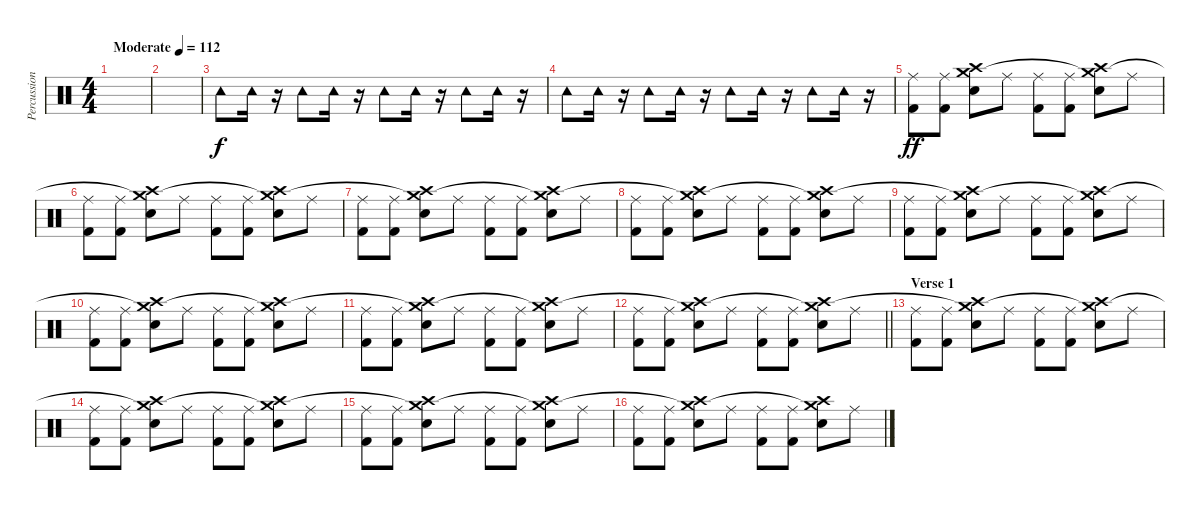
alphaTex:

\track ("Percussion" "Percussion") {instrument percussion}
\staff {score}
\articulation defaults
\ts (4 4)
\tempo (112 "Moderate")
\clef neutral
\ks c
|
|
"Tambourine (hit)".8 "Tambourine (hit)".16 r.16 "Tambourine (hit)".8 "Tambourine (hit)".16 r.16 "Tambourine (hit)".8 "Tambourine (hit)".16 r.16 "Tambourine (hit)".8 "Tambourine (hit)".16 r.16 |
"Tambourine (hit)".8 "Tambourine (hit)".16 r.16 "Tambourine (hit)".8 "Tambourine (hit)".16 r.16 "Tambourine (hit)".8 "Tambourine (hit)".16 r.16 "Tambourine (hit)".8 "Tambourine (hit)".16 r.16 |
("Kick (hit) 2" "Ride (middle)").8{dy ff} ("Kick (hit) 2" "Ride (middle)").8 ("Crash high (hit)" "Electric Snare (hit)" "Crash medium (hit)").8 "Ride (middle)".8 ("Kick (hit) 2" "Ride (middle)").8 ("Kick (hit) 2" "Ride (middle)").8 ("Crash high (hit)" "Electric Snare (hit)" "Crash medium (hit)"{t}).8 "Ride (middle)".8 |
("Kick (hit) 2" "Ride (middle)").8 ("Kick (hit) 2" "Ride (middle)").8 ("Crash high (hit)" "Electric Snare (hit)" "Crash medium (hit)"{t}).8 "Ride (middle)".8 ("Kick (hit) 2" "Ride (middle)").8 ("Kick (hit) 2" "Ride (middle)").8 ("Crash high (hit)" "Electric Snare (hit)" "Crash medium (hit)"{t}).8 "Ride (middle)".8 |
("Kick (hit) 2" "Ride (middle)").8 ("Kick (hit) 2" "Ride (middle)").8 ("Crash high (hit)" "Electric Snare (hit)" "Crash medium (hit)"{t}).8 "Ride (middle)".8 ("Kick (hit) 2" "Ride (middle)").8 ("Kick (hit) 2" "Ride (middle)").8 ("Crash high (hit)" "Electric Snare (hit)" "Crash medium (hit)"{t}).8 "Ride (middle)".8 |
("Kick (hit) 2" "Ride (middle)").8 ("Kick (hit) 2" "Ride (middle)").8 ("Crash high (hit)" "Electric Snare (hit)" "Crash medium (hit)"{t}).8 "Ride (middle)".8 ("Kick (hit) 2" "Ride (middle)").8 ("Kick (hit) 2" "Ride (middle)").8 ("Crash high (hit)" "Electric Snare (hit)" "Crash medium (hit)"{t}).8 "Ride (middle)".8 |
("Kick (hit) 2" "Ride (middle)").8 ("Kick (hit) 2" "Ride (middle)").8 ("Crash high (hit)" "Electric Snare (hit)" "Crash medium (hit)"{t}).8 "Ride (middle)".8 ("Kick (hit) 2" "Ride (middle)").8 ("Kick (hit) 2" "Ride (middle)").8 ("Crash high (hit)" "Electric Snare (hit)" "Crash medium (hit)"{t}).8 "Ride (middle)".8 |
("Kick (hit) 2" "Ride (middle)").8 ("Kick (hit) 2" "Ride (middle)").8 ("Crash high (hit)" "Electric Snare (hit)" "Crash medium (hit)"{t}).8 "Ride (middle)".8 ("Kick (hit) 2" "Ride (middle)").8 ("Kick (hit) 2" "Ride (middle)").8 ("Crash high (hit)" "Electric Snare (hit)" "Crash medium (hit)"{t}).8 "Ride (middle)".8 |
("Kick (hit) 2" "Ride (middle)").8 ("Kick (hit) 2" "Ride (middle)").8 ("Crash high (hit)" "Electric Snare (hit)" "Crash medium (hit)"{t}).8 "Ride (middle)".8 ("Kick (hit) 2" "Ride (middle)").8 ("Kick (hit) 2" "Ride (middle)").8 ("Crash high (hit)" "Electric Snare (hit)" "Crash medium (hit)"{t}).8 "Ride (middle)".8 |
\barLineRight lightlight
("Kick (hit) 2" "Ride (middle)").8 ("Kick (hit) 2" "Ride (middle)").8 ("Crash high (hit)" "Electric Snare (hit)" "Crash medium (hit)"{t}).8 "Ride (middle)".8 ("Kick (hit) 2" "Ride (middle)").8 ("Kick (hit) 2" "Ride (middle)").8 ("Crash high (hit)" "Electric Snare (hit)" "Crash medium (hit)"{t}).8 "Ride (middle)".8 |
\section ("" "Verse 1")
("Kick (hit) 2" "Ride (middle)").8 ("Kick (hit) 2" "Ride (middle)").8 ("Crash high (hit)" "Electric Snare (hit)" "Crash medium (hit)"{t}).8 "Ride (middle)".8 ("Kick (hit) 2" "Ride (middle)").8 ("Kick (hit) 2" "Ride (middle)").8 ("Crash high (hit)" "Electric Snare (hit)" "Crash medium (hit)"{t}).8 "Ride (middle)".8 |
("Kick (hit) 2" "Ride (middle)").8 ("Kick (hit) 2" "Ride (middle)").8 ("Crash high (hit)" "Electric Snare (hit)" "Crash medium (hit)"{t}).8 "Ride (middle)".8 ("Kick (hit) 2" "Ride (middle)").8 ("Kick (hit) 2" "Ride (middle)").8 ("Crash high (hit)" "Electric Snare (hit)" "Crash medium (hit)"{t}).8 "Ride (middle)".8 |
("Kick (hit) 2" "Ride (middle)").8 ("Kick (hit) 2" "Ride (middle)").8 ("Crash high (hit)" "Electric Snare (hit)" "Crash medium (hit)"{t}).8 "Ride (middle)".8 ("Kick (hit) 2" "Ride (middle)").8 ("Kick (hit) 2" "Ride (middle)").8 ("Crash high (hit)" "Electric Snare (hit)" "Crash medium (hit)"{t}).8 "Ride (middle)".8 |
("Kick (hit) 2" "Ride (middle)").8 ("Kick (hit) 2" "Ride (middle)").8 ("Crash high (hit)" "Electric Snare (hit)" "Crash medium (hit)"{t}).8 "Ride (middle)".8 ("Kick (hit) 2" "Ride (middle)").8 ("Kick (hit) 2" "Ride (middle)").8 ("Crash high (hit)" "Electric Snare (hit)" "Crash medium (hit)"{t}).8 "Ride (middle)".8
